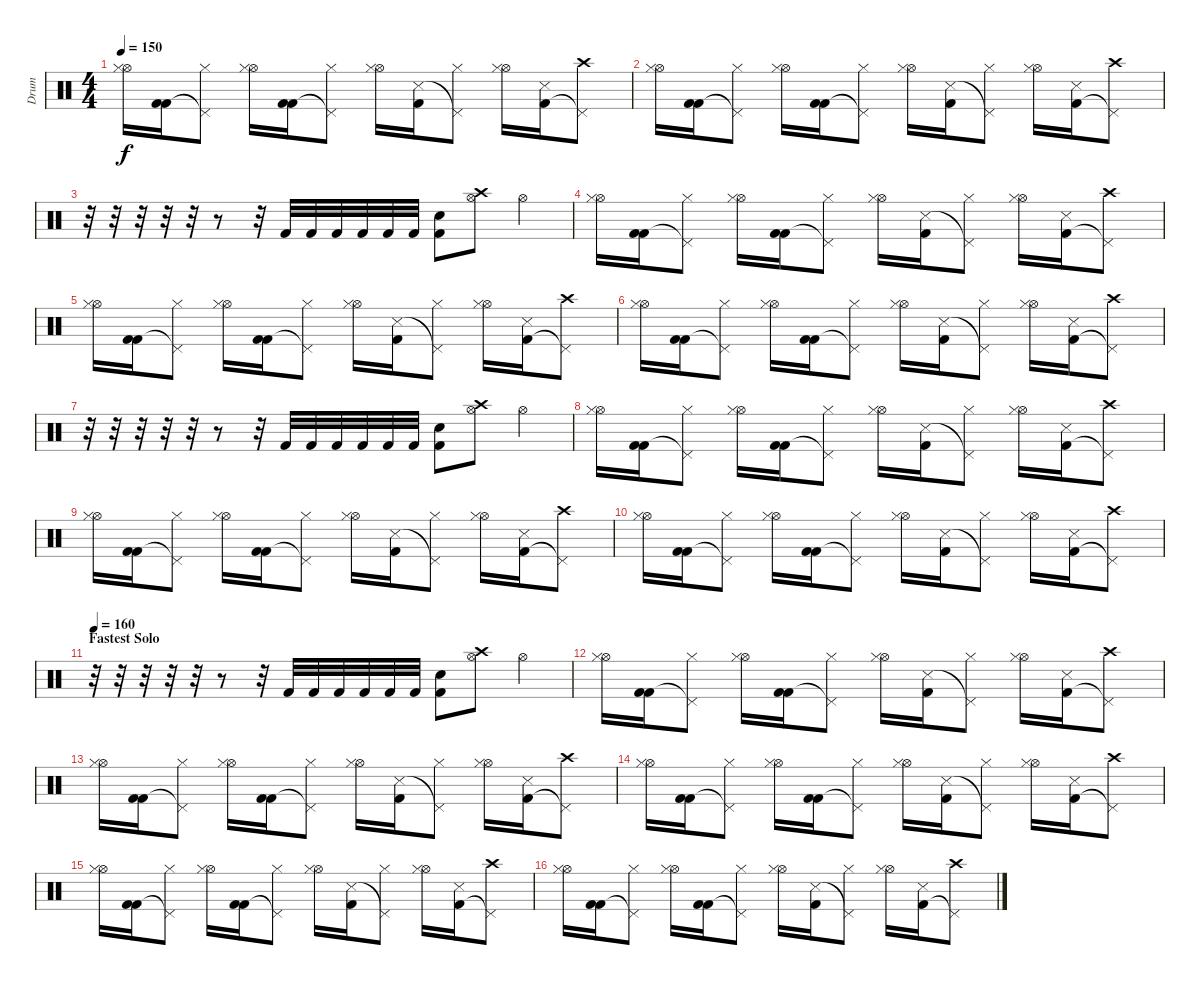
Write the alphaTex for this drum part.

\track ("Drum" "Drum") {instrument percussion}
\staff {score}
\articulation defaults
\ts (4 4)
\tempo 150
\clef neutral
\ks c
("Hi-Hat (open)" "Hi-Hat (closed)").16{dy f} ("Kick (hit) 2" "Kick (hit) 2").16 ("Hi-Hat (closed)" "Pedal Hi-Hat (hit)"{t}).8 ("Hi-Hat (open)" "Hi-Hat (closed)").16 ("Kick (hit) 2" "Kick (hit) 2").16 ("Hi-Hat (closed)" "Pedal Hi-Hat (hit)"{t}).8 ("Hi-Hat (open)" "Hi-Hat (closed)").16 ("Kick (hit) 2" "Snare (side stick) 3").16 ("Hi-Hat (closed)" "Pedal Hi-Hat (hit)"{t}).8 ("Hi-Hat (open)" "Hi-Hat (closed)").16 ("Snare (side stick) 3" "Kick (hit) 2").16 ("Crash high (hit)" "Pedal Hi-Hat (hit)"{t}).8 |
("Hi-Hat (open)" "Hi-Hat (closed)").16 ("Kick (hit) 2" "Kick (hit) 2").16 ("Hi-Hat (closed)" "Pedal Hi-Hat (hit)"{t}).8 ("Hi-Hat (open)" "Hi-Hat (closed)").16 ("Kick (hit) 2" "Kick (hit) 2").16 ("Hi-Hat (closed)" "Pedal Hi-Hat (hit)"{t}).8 ("Hi-Hat (open)" "Hi-Hat (closed)").16 ("Kick (hit) 2" "Snare (side stick) 3").16 ("Hi-Hat (closed)" "Pedal Hi-Hat (hit)"{t}).8 ("Hi-Hat (open)" "Hi-Hat (closed)").16 ("Snare (side stick) 3" "Kick (hit) 2").16 ("Crash high (hit)" "Pedal Hi-Hat (hit)"{t}).8 |
r.32 r.32 r.32 r.32 r.32 r.8 r.32 "Kick (hit) 2".32 "Kick (hit) 2".32 "Kick (hit) 2".32 "Kick (hit) 2".32 "Kick (hit) 2".32 "Kick (hit) 2".32 ("Snare (hit) 2" "Kick (hit) 2").8 ("Hi-Hat (open)" "Crash high (hit)").8 "Hi-Hat (open)".4 |
("Hi-Hat (open)" "Hi-Hat (closed)").16 ("Kick (hit) 2" "Kick (hit) 2").16 ("Hi-Hat (closed)" "Pedal Hi-Hat (hit)"{t}).8 ("Hi-Hat (open)" "Hi-Hat (closed)").16 ("Kick (hit) 2" "Kick (hit) 2").16 ("Hi-Hat (closed)" "Pedal Hi-Hat (hit)"{t}).8 ("Hi-Hat (open)" "Hi-Hat (closed)").16 ("Kick (hit) 2" "Snare (side stick) 3").16 ("Hi-Hat (closed)" "Pedal Hi-Hat (hit)"{t}).8 ("Hi-Hat (open)" "Hi-Hat (closed)").16 ("Snare (side stick) 3" "Kick (hit) 2").16 ("Crash high (hit)" "Pedal Hi-Hat (hit)"{t}).8 |
("Hi-Hat (open)" "Hi-Hat (closed)").16 ("Kick (hit) 2" "Kick (hit) 2").16 ("Hi-Hat (closed)" "Pedal Hi-Hat (hit)"{t}).8 ("Hi-Hat (open)" "Hi-Hat (closed)").16 ("Kick (hit) 2" "Kick (hit) 2").16 ("Hi-Hat (closed)" "Pedal Hi-Hat (hit)"{t}).8 ("Hi-Hat (open)" "Hi-Hat (closed)").16 ("Kick (hit) 2" "Snare (side stick) 3").16 ("Hi-Hat (closed)" "Pedal Hi-Hat (hit)"{t}).8 ("Hi-Hat (open)" "Hi-Hat (closed)").16 ("Snare (side stick) 3" "Kick (hit) 2").16 ("Crash high (hit)" "Pedal Hi-Hat (hit)"{t}).8 |
("Hi-Hat (open)" "Hi-Hat (closed)").16 ("Kick (hit) 2" "Kick (hit) 2").16 ("Hi-Hat (closed)" "Pedal Hi-Hat (hit)"{t}).8 ("Hi-Hat (open)" "Hi-Hat (closed)").16 ("Kick (hit) 2" "Kick (hit) 2").16 ("Hi-Hat (closed)" "Pedal Hi-Hat (hit)"{t}).8 ("Hi-Hat (open)" "Hi-Hat (closed)").16 ("Kick (hit) 2" "Snare (side stick) 3").16 ("Hi-Hat (closed)" "Pedal Hi-Hat (hit)"{t}).8 ("Hi-Hat (open)" "Hi-Hat (closed)").16 ("Snare (side stick) 3" "Kick (hit) 2").16 ("Crash high (hit)" "Pedal Hi-Hat (hit)"{t}).8 |
r.32 r.32 r.32 r.32 r.32 r.8 r.32 "Kick (hit) 2".32 "Kick (hit) 2".32 "Kick (hit) 2".32 "Kick (hit) 2".32 "Kick (hit) 2".32 "Kick (hit) 2".32 ("Snare (hit) 2" "Kick (hit) 2").8 ("Hi-Hat (open)" "Crash high (hit)").8 "Hi-Hat (open)".4 |
("Hi-Hat (open)" "Hi-Hat (closed)").16 ("Kick (hit) 2" "Kick (hit) 2").16 ("Hi-Hat (closed)" "Pedal Hi-Hat (hit)"{t}).8 ("Hi-Hat (open)" "Hi-Hat (closed)").16 ("Kick (hit) 2" "Kick (hit) 2").16 ("Hi-Hat (closed)" "Pedal Hi-Hat (hit)"{t}).8 ("Hi-Hat (open)" "Hi-Hat (closed)").16 ("Kick (hit) 2" "Snare (side stick) 3").16 ("Hi-Hat (closed)" "Pedal Hi-Hat (hit)"{t}).8 ("Hi-Hat (open)" "Hi-Hat (closed)").16 ("Snare (side stick) 3" "Kick (hit) 2").16 ("Crash high (hit)" "Pedal Hi-Hat (hit)"{t}).8 |
("Hi-Hat (open)" "Hi-Hat (closed)").16 ("Kick (hit) 2" "Kick (hit) 2").16 ("Hi-Hat (closed)" "Pedal Hi-Hat (hit)"{t}).8 ("Hi-Hat (open)" "Hi-Hat (closed)").16 ("Kick (hit) 2" "Kick (hit) 2").16 ("Hi-Hat (closed)" "Pedal Hi-Hat (hit)"{t}).8 ("Hi-Hat (open)" "Hi-Hat (closed)").16 ("Kick (hit) 2" "Snare (side stick) 3").16 ("Hi-Hat (closed)" "Pedal Hi-Hat (hit)"{t}).8 ("Hi-Hat (open)" "Hi-Hat (closed)").16 ("Snare (side stick) 3" "Kick (hit) 2").16 ("Crash high (hit)" "Pedal Hi-Hat (hit)"{t}).8 |
("Hi-Hat (open)" "Hi-Hat (closed)").16 ("Kick (hit) 2" "Kick (hit) 2").16 ("Hi-Hat (closed)" "Pedal Hi-Hat (hit)"{t}).8 ("Hi-Hat (open)" "Hi-Hat (closed)").16 ("Kick (hit) 2" "Kick (hit) 2").16 ("Hi-Hat (closed)" "Pedal Hi-Hat (hit)"{t}).8 ("Hi-Hat (open)" "Hi-Hat (closed)").16 ("Kick (hit) 2" "Snare (side stick) 3").16 ("Hi-Hat (closed)" "Pedal Hi-Hat (hit)"{t}).8 ("Hi-Hat (open)" "Hi-Hat (closed)").16 ("Snare (side stick) 3" "Kick (hit) 2").16 ("Crash high (hit)" "Pedal Hi-Hat (hit)"{t}).8 |
\section ("" "Fastest Solo")
\tempo 160
r.32 r.32 r.32 r.32 r.32 r.8 r.32 "Kick (hit) 2".32 "Kick (hit) 2".32 "Kick (hit) 2".32 "Kick (hit) 2".32 "Kick (hit) 2".32 "Kick (hit) 2".32 ("Snare (hit) 2" "Kick (hit) 2").8 ("Hi-Hat (open)" "Crash high (hit)").8 "Hi-Hat (open)".4 |
("Hi-Hat (open)" "Hi-Hat (closed)").16 ("Kick (hit) 2" "Kick (hit) 2").16 ("Hi-Hat (closed)" "Pedal Hi-Hat (hit)"{t}).8 ("Hi-Hat (open)" "Hi-Hat (closed)").16 ("Kick (hit) 2" "Kick (hit) 2").16 ("Hi-Hat (closed)" "Pedal Hi-Hat (hit)"{t}).8 ("Hi-Hat (open)" "Hi-Hat (closed)").16 ("Kick (hit) 2" "Snare (side stick) 3").16 ("Hi-Hat (closed)" "Pedal Hi-Hat (hit)"{t}).8 ("Hi-Hat (open)" "Hi-Hat (closed)").16 ("Snare (side stick) 3" "Kick (hit) 2").16 ("Crash high (hit)" "Pedal Hi-Hat (hit)"{t}).8 |
("Hi-Hat (open)" "Hi-Hat (closed)").16 ("Kick (hit) 2" "Kick (hit) 2").16 ("Hi-Hat (closed)" "Pedal Hi-Hat (hit)"{t}).8 ("Hi-Hat (open)" "Hi-Hat (closed)").16 ("Kick (hit) 2" "Kick (hit) 2").16 ("Hi-Hat (closed)" "Pedal Hi-Hat (hit)"{t}).8 ("Hi-Hat (open)" "Hi-Hat (closed)").16 ("Kick (hit) 2" "Snare (side stick) 3").16 ("Hi-Hat (closed)" "Pedal Hi-Hat (hit)"{t}).8 ("Hi-Hat (open)" "Hi-Hat (closed)").16 ("Snare (side stick) 3" "Kick (hit) 2").16 ("Crash high (hit)" "Pedal Hi-Hat (hit)"{t}).8 |
("Hi-Hat (open)" "Hi-Hat (closed)").16 ("Kick (hit) 2" "Kick (hit) 2").16 ("Hi-Hat (closed)" "Pedal Hi-Hat (hit)"{t}).8 ("Hi-Hat (open)" "Hi-Hat (closed)").16 ("Kick (hit) 2" "Kick (hit) 2").16 ("Hi-Hat (closed)" "Pedal Hi-Hat (hit)"{t}).8 ("Hi-Hat (open)" "Hi-Hat (closed)").16 ("Kick (hit) 2" "Snare (side stick) 3").16 ("Hi-Hat (closed)" "Pedal Hi-Hat (hit)"{t}).8 ("Hi-Hat (open)" "Hi-Hat (closed)").16 ("Snare (side stick) 3" "Kick (hit) 2").16 ("Crash high (hit)" "Pedal Hi-Hat (hit)"{t}).8 |
("Hi-Hat (open)" "Hi-Hat (closed)").16 ("Kick (hit) 2" "Kick (hit) 2").16 ("Hi-Hat (closed)" "Pedal Hi-Hat (hit)"{t}).8 ("Hi-Hat (open)" "Hi-Hat (closed)").16 ("Kick (hit) 2" "Kick (hit) 2").16 ("Hi-Hat (closed)" "Pedal Hi-Hat (hit)"{t}).8 ("Hi-Hat (open)" "Hi-Hat (closed)").16 ("Kick (hit) 2" "Snare (side stick) 3").16 ("Hi-Hat (closed)" "Pedal Hi-Hat (hit)"{t}).8 ("Hi-Hat (open)" "Hi-Hat (closed)").16 ("Snare (side stick) 3" "Kick (hit) 2").16 ("Crash high (hit)" "Pedal Hi-Hat (hit)"{t}).8 |
("Hi-Hat (open)" "Hi-Hat (closed)").16 ("Kick (hit) 2" "Kick (hit) 2").16 ("Hi-Hat (closed)" "Pedal Hi-Hat (hit)"{t}).8 ("Hi-Hat (open)" "Hi-Hat (closed)").16 ("Kick (hit) 2" "Kick (hit) 2").16 ("Hi-Hat (closed)" "Pedal Hi-Hat (hit)"{t}).8 ("Hi-Hat (open)" "Hi-Hat (closed)").16 ("Kick (hit) 2" "Snare (side stick) 3").16 ("Hi-Hat (closed)" "Pedal Hi-Hat (hit)"{t}).8 ("Hi-Hat (open)" "Hi-Hat (closed)").16 ("Snare (side stick) 3" "Kick (hit) 2").16 ("Crash high (hit)" "Pedal Hi-Hat (hit)"{t}).8
